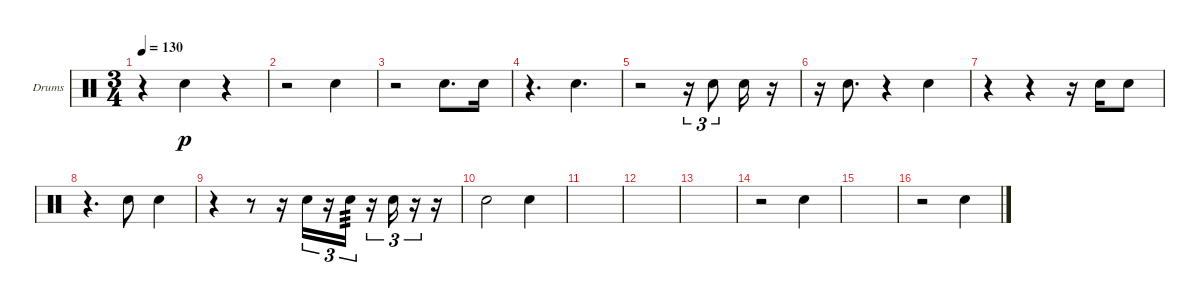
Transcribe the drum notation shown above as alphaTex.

\bracketExtendMode groupsimilarinstruments
\firstSystemTrackNameOrientation horizontal
\otherSystemsTrackNameOrientation horizontal
\track ("Drums" "Drums") {instrument percussion}
\staff {score}
\articulation defaults
\ts (3 4)
\tempo 130
\clef neutral
\ks c
r.4{dy p} "Snare (hit) 2".4 r.4 |
r.2 "Snare (hit) 2".4 |
r.2 "Snare (hit) 2".8{d} "Snare (hit) 2".16 |
r.4{d} "Snare (hit) 2".4{d} |
r.2 r.16{tu (3 2)} "Snare (hit) 2".8{tu (3 2)} "Snare (hit) 2".16 r.16 |
r.16 "Snare (hit) 2".8{d} r.4 "Snare (hit) 2".4 |
r.4 r.4 r.16 "Snare (hit) 2".16 "Snare (hit) 2".8 |
r.4{d} "Snare (hit) 2".8 "Snare (hit) 2".4 |
r.4 r.8 r.16 "Snare (hit) 2".16{tu (3 2)} r.16{tu (3 2)} "Snare (hit) 2".16{tu (3 2) tp 3} r.16{tu (3 2)} "Snare (hit) 2".16{tu (3 2)} r.16{tu (3 2)} r.16 |
"Snare (hit) 2".2 "Snare (hit) 2".4 |
|
|
|
r.2 "Snare (hit) 2".4 |
|
r.2 "Snare (hit) 2".4
